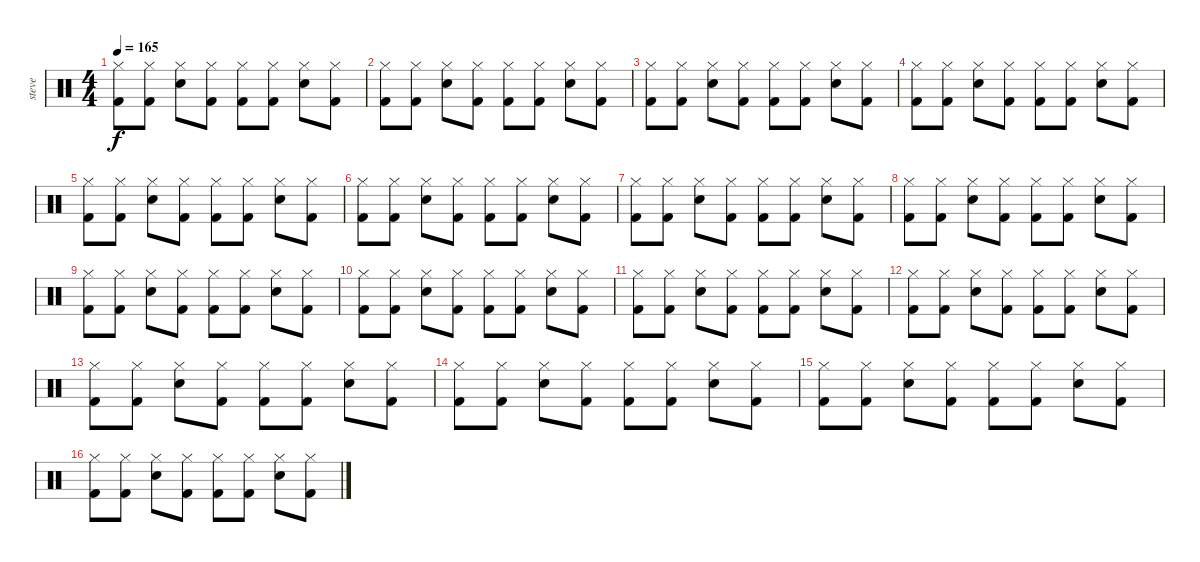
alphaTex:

\track ("steve" "steve") {instrument percussion}
\staff {score}
\articulation defaults
\ts (4 4)
\tempo 165
\clef neutral
\ks c
("Hi-Hat (closed)" "Kick (hit) 2").8{dy f} ("Hi-Hat (closed)" "Kick (hit) 2").8 ("Hi-Hat (closed)" "Electric Snare (hit)").8 ("Hi-Hat (closed)" "Kick (hit) 2").8 ("Hi-Hat (closed)" "Kick (hit) 2").8 ("Hi-Hat (closed)" "Kick (hit) 2").8 ("Hi-Hat (closed)" "Electric Snare (hit)").8 ("Hi-Hat (closed)" "Kick (hit) 2").8 |
("Hi-Hat (closed)" "Kick (hit) 2").8 ("Hi-Hat (closed)" "Kick (hit) 2").8 ("Hi-Hat (closed)" "Electric Snare (hit)").8 ("Hi-Hat (closed)" "Kick (hit) 2").8 ("Hi-Hat (closed)" "Kick (hit) 2").8 ("Hi-Hat (closed)" "Kick (hit) 2").8 ("Hi-Hat (closed)" "Electric Snare (hit)").8 ("Hi-Hat (closed)" "Kick (hit) 2").8 |
("Hi-Hat (closed)" "Kick (hit) 2").8 ("Hi-Hat (closed)" "Kick (hit) 2").8 ("Hi-Hat (closed)" "Electric Snare (hit)").8 ("Hi-Hat (closed)" "Kick (hit) 2").8 ("Hi-Hat (closed)" "Kick (hit) 2").8 ("Hi-Hat (closed)" "Kick (hit) 2").8 ("Hi-Hat (closed)" "Electric Snare (hit)").8 ("Hi-Hat (closed)" "Kick (hit) 2").8 |
("Hi-Hat (closed)" "Kick (hit) 2").8 ("Hi-Hat (closed)" "Kick (hit) 2").8 ("Hi-Hat (closed)" "Electric Snare (hit)").8 ("Hi-Hat (closed)" "Kick (hit) 2").8 ("Hi-Hat (closed)" "Kick (hit) 2").8 ("Hi-Hat (closed)" "Kick (hit) 2").8 ("Hi-Hat (closed)" "Electric Snare (hit)").8 ("Hi-Hat (closed)" "Kick (hit) 2").8 |
("Hi-Hat (closed)" "Kick (hit) 2").8 ("Hi-Hat (closed)" "Kick (hit) 2").8 ("Hi-Hat (closed)" "Electric Snare (hit)").8 ("Hi-Hat (closed)" "Kick (hit) 2").8 ("Hi-Hat (closed)" "Kick (hit) 2").8 ("Hi-Hat (closed)" "Kick (hit) 2").8 ("Hi-Hat (closed)" "Electric Snare (hit)").8 ("Hi-Hat (closed)" "Kick (hit) 2").8 |
("Hi-Hat (closed)" "Kick (hit) 2").8 ("Hi-Hat (closed)" "Kick (hit) 2").8 ("Hi-Hat (closed)" "Electric Snare (hit)").8 ("Hi-Hat (closed)" "Kick (hit) 2").8 ("Hi-Hat (closed)" "Kick (hit) 2").8 ("Hi-Hat (closed)" "Kick (hit) 2").8 ("Hi-Hat (closed)" "Electric Snare (hit)").8 ("Hi-Hat (closed)" "Kick (hit) 2").8 |
("Hi-Hat (closed)" "Kick (hit) 2").8 ("Hi-Hat (closed)" "Kick (hit) 2").8 ("Hi-Hat (closed)" "Electric Snare (hit)").8 ("Hi-Hat (closed)" "Kick (hit) 2").8 ("Hi-Hat (closed)" "Kick (hit) 2").8 ("Hi-Hat (closed)" "Kick (hit) 2").8 ("Hi-Hat (closed)" "Electric Snare (hit)").8 ("Hi-Hat (closed)" "Kick (hit) 2").8 |
("Hi-Hat (closed)" "Kick (hit) 2").8 ("Hi-Hat (closed)" "Kick (hit) 2").8 ("Hi-Hat (closed)" "Electric Snare (hit)").8 ("Hi-Hat (closed)" "Kick (hit) 2").8 ("Hi-Hat (closed)" "Kick (hit) 2").8 ("Hi-Hat (closed)" "Kick (hit) 2").8 ("Hi-Hat (closed)" "Electric Snare (hit)").8 ("Hi-Hat (closed)" "Kick (hit) 2").8 |
("Hi-Hat (closed)" "Kick (hit) 2").8 ("Hi-Hat (closed)" "Kick (hit) 2").8 ("Hi-Hat (closed)" "Electric Snare (hit)").8 ("Hi-Hat (closed)" "Kick (hit) 2").8 ("Hi-Hat (closed)" "Kick (hit) 2").8 ("Hi-Hat (closed)" "Kick (hit) 2").8 ("Hi-Hat (closed)" "Electric Snare (hit)").8 ("Hi-Hat (closed)" "Kick (hit) 2").8 |
("Hi-Hat (closed)" "Kick (hit) 2").8 ("Hi-Hat (closed)" "Kick (hit) 2").8 ("Hi-Hat (closed)" "Electric Snare (hit)").8 ("Hi-Hat (closed)" "Kick (hit) 2").8 ("Hi-Hat (closed)" "Kick (hit) 2").8 ("Hi-Hat (closed)" "Kick (hit) 2").8 ("Hi-Hat (closed)" "Electric Snare (hit)").8 ("Hi-Hat (closed)" "Kick (hit) 2").8 |
("Hi-Hat (closed)" "Kick (hit) 2").8 ("Hi-Hat (closed)" "Kick (hit) 2").8 ("Hi-Hat (closed)" "Electric Snare (hit)").8 ("Hi-Hat (closed)" "Kick (hit) 2").8 ("Hi-Hat (closed)" "Kick (hit) 2").8 ("Hi-Hat (closed)" "Kick (hit) 2").8 ("Hi-Hat (closed)" "Electric Snare (hit)").8 ("Hi-Hat (closed)" "Kick (hit) 2").8 |
("Hi-Hat (closed)" "Kick (hit) 2").8 ("Hi-Hat (closed)" "Kick (hit) 2").8 ("Hi-Hat (closed)" "Electric Snare (hit)").8 ("Hi-Hat (closed)" "Kick (hit) 2").8 ("Hi-Hat (closed)" "Kick (hit) 2").8 ("Hi-Hat (closed)" "Kick (hit) 2").8 ("Hi-Hat (closed)" "Electric Snare (hit)").8 ("Hi-Hat (closed)" "Kick (hit) 2").8 |
("Hi-Hat (closed)" "Kick (hit) 2").8 ("Hi-Hat (closed)" "Kick (hit) 2").8 ("Hi-Hat (closed)" "Electric Snare (hit)").8 ("Hi-Hat (closed)" "Kick (hit) 2").8 ("Hi-Hat (closed)" "Kick (hit) 2").8 ("Hi-Hat (closed)" "Kick (hit) 2").8 ("Hi-Hat (closed)" "Electric Snare (hit)").8 ("Hi-Hat (closed)" "Kick (hit) 2").8 |
("Hi-Hat (closed)" "Kick (hit) 2").8 ("Hi-Hat (closed)" "Kick (hit) 2").8 ("Hi-Hat (closed)" "Electric Snare (hit)").8 ("Hi-Hat (closed)" "Kick (hit) 2").8 ("Hi-Hat (closed)" "Kick (hit) 2").8 ("Hi-Hat (closed)" "Kick (hit) 2").8 ("Hi-Hat (closed)" "Electric Snare (hit)").8 ("Hi-Hat (closed)" "Kick (hit) 2").8 |
("Hi-Hat (closed)" "Kick (hit) 2").8 ("Hi-Hat (closed)" "Kick (hit) 2").8 ("Hi-Hat (closed)" "Electric Snare (hit)").8 ("Hi-Hat (closed)" "Kick (hit) 2").8 ("Hi-Hat (closed)" "Kick (hit) 2").8 ("Hi-Hat (closed)" "Kick (hit) 2").8 ("Hi-Hat (closed)" "Electric Snare (hit)").8 ("Hi-Hat (closed)" "Kick (hit) 2").8 |
("Hi-Hat (closed)" "Kick (hit) 2").8 ("Hi-Hat (closed)" "Kick (hit) 2").8 ("Hi-Hat (closed)" "Electric Snare (hit)").8 ("Hi-Hat (closed)" "Kick (hit) 2").8 ("Hi-Hat (closed)" "Kick (hit) 2").8 ("Hi-Hat (closed)" "Kick (hit) 2").8 ("Hi-Hat (closed)" "Electric Snare (hit)").8 ("Hi-Hat (closed)" "Kick (hit) 2").8
